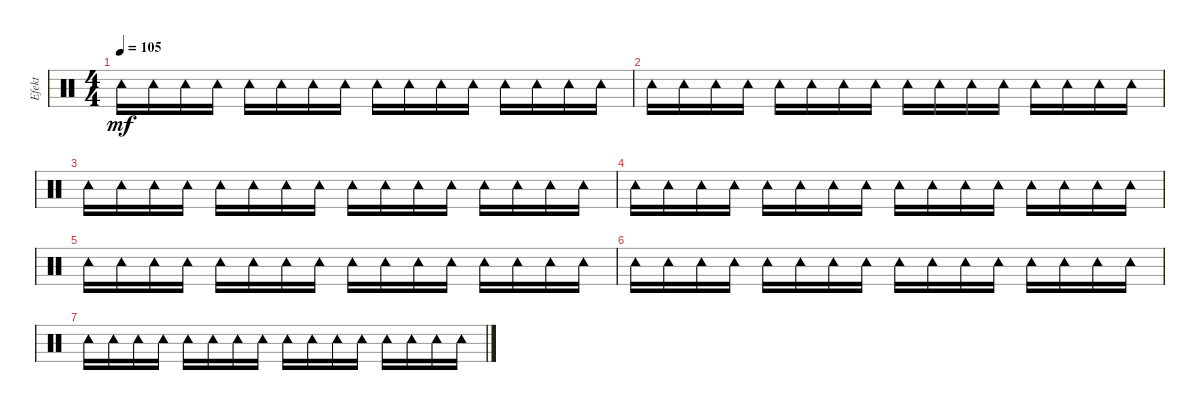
\track ("Efekt" "Efekt") {instrument percussion}
\staff {score}
\articulation defaults
\ts (4 4)
\tempo 105
\clef neutral
\ks c "Tambourine (hit)".16{dy mf} "Tambourine (hit)".16 "Tambourine (hit)".16 "Tambourine (hit)".16 "Tambourine (hit)".16 "Tambourine (hit)".16 "Tambourine (hit)".16 "Tambourine (hit)".16 "Tambourine (hit)".16 "Tambourine (hit)".16 "Tambourine (hit)".16 "Tambourine (hit)".16 "Tambourine (hit)".16 "Tambourine (hit)".16 "Tambourine (hit)".16 "Tambourine (hit)".16
|
"Tambourine (hit)".16 "Tambourine (hit)".16 "Tambourine (hit)".16 "Tambourine (hit)".16 "Tambourine (hit)".16 "Tambourine (hit)".16 "Tambourine (hit)".16 "Tambourine (hit)".16 "Tambourine (hit)".16 "Tambourine (hit)".16 "Tambourine (hit)".16 "Tambourine (hit)".16 "Tambourine (hit)".16 "Tambourine (hit)".16 "Tambourine (hit)".16 "Tambourine (hit)".16 |
"Tambourine (hit)".16 "Tambourine (hit)".16 "Tambourine (hit)".16 "Tambourine (hit)".16 "Tambourine (hit)".16 "Tambourine (hit)".16 "Tambourine (hit)".16 "Tambourine (hit)".16 "Tambourine (hit)".16 "Tambourine (hit)".16 "Tambourine (hit)".16 "Tambourine (hit)".16 "Tambourine (hit)".16 "Tambourine (hit)".16 "Tambourine (hit)".16 "Tambourine (hit)".16 |
"Tambourine (hit)".16 "Tambourine (hit)".16 "Tambourine (hit)".16 "Tambourine (hit)".16 "Tambourine (hit)".16 "Tambourine (hit)".16 "Tambourine (hit)".16 "Tambourine (hit)".16 "Tambourine (hit)".16 "Tambourine (hit)".16 "Tambourine (hit)".16 "Tambourine (hit)".16 "Tambourine (hit)".16 "Tambourine (hit)".16 "Tambourine (hit)".16 "Tambourine (hit)".16 |
"Tambourine (hit)".16 "Tambourine (hit)".16 "Tambourine (hit)".16 "Tambourine (hit)".16 "Tambourine (hit)".16 "Tambourine (hit)".16 "Tambourine (hit)".16 "Tambourine (hit)".16 "Tambourine (hit)".16 "Tambourine (hit)".16 "Tambourine (hit)".16 "Tambourine (hit)".16 "Tambourine (hit)".16 "Tambourine (hit)".16 "Tambourine (hit)".16 "Tambourine (hit)".16 |
"Tambourine (hit)".16 "Tambourine (hit)".16 "Tambourine (hit)".16 "Tambourine (hit)".16 "Tambourine (hit)".16 "Tambourine (hit)".16 "Tambourine (hit)".16 "Tambourine (hit)".16 "Tambourine (hit)".16 "Tambourine (hit)".16 "Tambourine (hit)".16 "Tambourine (hit)".16 "Tambourine (hit)".16 "Tambourine (hit)".16 "Tambourine (hit)".16 "Tambourine (hit)".16 |
"Tambourine (hit)".16 "Tambourine (hit)".16 "Tambourine (hit)".16 "Tambourine (hit)".16 "Tambourine (hit)".16 "Tambourine (hit)".16 "Tambourine (hit)".16 "Tambourine (hit)".16 "Tambourine (hit)".16 "Tambourine (hit)".16 "Tambourine (hit)".16 "Tambourine (hit)".16 "Tambourine (hit)".16 "Tambourine (hit)".16 "Tambourine (hit)".16 "Tambourine (hit)".16
